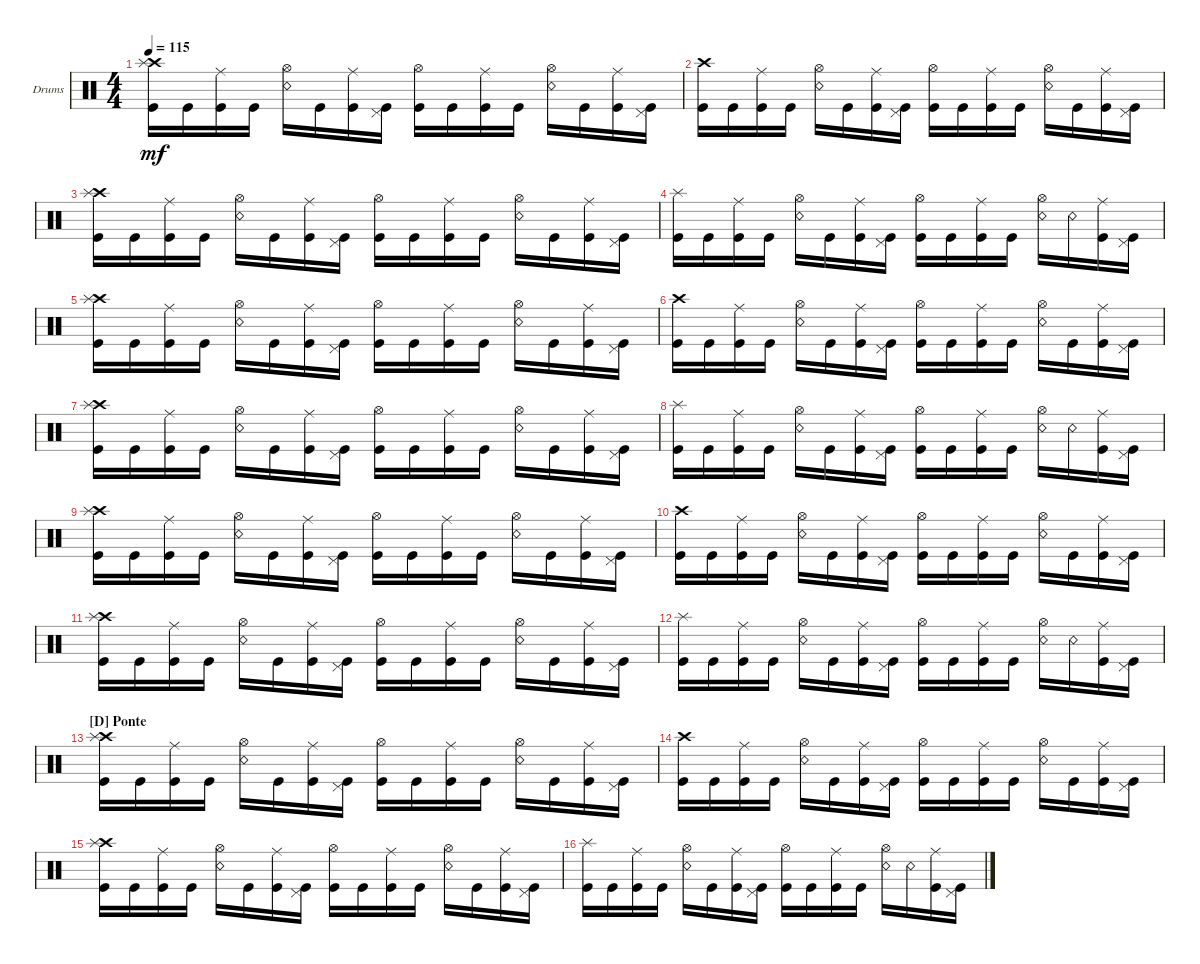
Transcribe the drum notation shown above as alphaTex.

\defaultSystemsLayout 4
\bracketExtendMode groupsimilarinstruments
\firstSystemTrackNameOrientation horizontal
\otherSystemsTrackNameOrientation horizontal
\track ("Drum" "Drums") {multiBarRest instrument percussion}
\staff {score}
\articulation defaults
\ts (4 4)
\tempo 115
\clef neutral
\ks c
("Kick (hit)" "Crash high (hit)" "Splash (hit)").16{dy mf} "Kick (hit)".16 ("Kick (hit)" "Ride (middle)").16 "Kick (hit)".16 ("Snare (rim shot)" "Hi-Hat (open)").16 "Kick (hit)".16 ("Kick (hit)" "Ride (middle)").16 ("Kick (hit)" "Pedal Hi-Hat (hit)").16 ("Kick (hit)" "Hi-Hat (open)").16 "Kick (hit)".16 ("Kick (hit)" "Ride (middle)").16 "Kick (hit)".16 ("Snare (rim shot)" "Hi-Hat (open)").16 "Kick (hit)".16 ("Kick (hit)" "Ride (middle)").16 ("Kick (hit)" "Pedal Hi-Hat (hit)").16 |
("Kick (hit)" "Crash high (hit)").16 "Kick (hit)".16 ("Kick (hit)" "Ride (middle)").16 "Kick (hit)".16 ("Snare (rim shot)" "Hi-Hat (open)").16 "Kick (hit)".16 ("Kick (hit)" "Ride (middle)").16 ("Kick (hit)" "Pedal Hi-Hat (hit)").16 ("Kick (hit)" "Hi-Hat (open)").16 "Kick (hit)".16 ("Kick (hit)" "Ride (middle)").16 "Kick (hit)".16 ("Snare (rim shot)" "Hi-Hat (open)").16 "Kick (hit)".16 ("Kick (hit)" "Ride (middle)").16 ("Kick (hit)" "Pedal Hi-Hat (hit)").16 |
("Kick (hit)" "Crash high (hit)" "Splash (hit)").16 "Kick (hit)".16 ("Kick (hit)" "Ride (middle)").16 "Kick (hit)".16 ("Snare (rim shot)" "Hi-Hat (open)").16 "Kick (hit)".16 ("Kick (hit)" "Ride (middle)").16 ("Kick (hit)" "Pedal Hi-Hat (hit)").16 ("Kick (hit)" "Hi-Hat (open)").16 "Kick (hit)".16 ("Kick (hit)" "Ride (middle)").16 "Kick (hit)".16 ("Snare (rim shot)" "Hi-Hat (open)").16 "Kick (hit)".16 ("Kick (hit)" "Ride (middle)").16 ("Kick (hit)" "Pedal Hi-Hat (hit)").16 |
("Kick (hit)" "Splash (hit)").16 "Kick (hit)".16 ("Kick (hit)" "Ride (middle)").16 "Kick (hit)".16 ("Snare (rim shot)" "Hi-Hat (open)").16 "Kick (hit)".16 ("Kick (hit)" "Ride (middle)").16 ("Kick (hit)" "Pedal Hi-Hat (hit)").16 ("Kick (hit)" "Hi-Hat (open)").16 "Kick (hit)".16 ("Kick (hit)" "Ride (middle)").16 "Kick (hit)".16 ("Snare (rim shot)" "Hi-Hat (open)").16 "Snare (rim shot)".16 ("Kick (hit)" "Ride (middle)").16 ("Kick (hit)" "Pedal Hi-Hat (hit)").16 |
("Kick (hit)" "Crash high (hit)" "Splash (hit)").16 "Kick (hit)".16 ("Kick (hit)" "Ride (middle)").16 "Kick (hit)".16 ("Snare (rim shot)" "Hi-Hat (open)").16 "Kick (hit)".16 ("Kick (hit)" "Ride (middle)").16 ("Kick (hit)" "Pedal Hi-Hat (hit)").16 ("Kick (hit)" "Hi-Hat (open)").16 "Kick (hit)".16 ("Kick (hit)" "Ride (middle)").16 "Kick (hit)".16 ("Snare (rim shot)" "Hi-Hat (open)").16 "Kick (hit)".16 ("Kick (hit)" "Ride (middle)").16 ("Kick (hit)" "Pedal Hi-Hat (hit)").16 |
("Kick (hit)" "Crash high (hit)").16 "Kick (hit)".16 ("Kick (hit)" "Ride (middle)").16 "Kick (hit)".16 ("Snare (rim shot)" "Hi-Hat (open)").16 "Kick (hit)".16 ("Kick (hit)" "Ride (middle)").16 ("Kick (hit)" "Pedal Hi-Hat (hit)").16 ("Kick (hit)" "Hi-Hat (open)").16 "Kick (hit)".16 ("Kick (hit)" "Ride (middle)").16 "Kick (hit)".16 ("Snare (rim shot)" "Hi-Hat (open)").16 "Kick (hit)".16 ("Kick (hit)" "Ride (middle)").16 ("Kick (hit)" "Pedal Hi-Hat (hit)").16 |
("Kick (hit)" "Crash high (hit)" "Splash (hit)").16 "Kick (hit)".16 ("Kick (hit)" "Ride (middle)").16 "Kick (hit)".16 ("Snare (rim shot)" "Hi-Hat (open)").16 "Kick (hit)".16 ("Kick (hit)" "Ride (middle)").16 ("Kick (hit)" "Pedal Hi-Hat (hit)").16 ("Kick (hit)" "Hi-Hat (open)").16 "Kick (hit)".16 ("Kick (hit)" "Ride (middle)").16 "Kick (hit)".16 ("Snare (rim shot)" "Hi-Hat (open)").16 "Kick (hit)".16 ("Kick (hit)" "Ride (middle)").16 ("Kick (hit)" "Pedal Hi-Hat (hit)").16 |
("Kick (hit)" "Splash (hit)").16 "Kick (hit)".16 ("Kick (hit)" "Ride (middle)").16 "Kick (hit)".16 ("Snare (rim shot)" "Hi-Hat (open)").16 "Kick (hit)".16 ("Kick (hit)" "Ride (middle)").16 ("Kick (hit)" "Pedal Hi-Hat (hit)").16 ("Kick (hit)" "Hi-Hat (open)").16 "Kick (hit)".16 ("Kick (hit)" "Ride (middle)").16 "Kick (hit)".16 ("Snare (rim shot)" "Hi-Hat (open)").16 "Snare (rim shot)".16 ("Kick (hit)" "Ride (middle)").16 ("Kick (hit)" "Pedal Hi-Hat (hit)").16 |
("Kick (hit)" "Crash high (hit)" "Splash (hit)").16 "Kick (hit)".16 ("Kick (hit)" "Ride (middle)").16 "Kick (hit)".16 ("Snare (rim shot)" "Hi-Hat (open)").16 "Kick (hit)".16 ("Kick (hit)" "Ride (middle)").16 ("Kick (hit)" "Pedal Hi-Hat (hit)").16 ("Kick (hit)" "Hi-Hat (open)").16 "Kick (hit)".16 ("Kick (hit)" "Ride (middle)").16 "Kick (hit)".16 ("Snare (rim shot)" "Hi-Hat (open)").16 "Kick (hit)".16 ("Kick (hit)" "Ride (middle)").16 ("Kick (hit)" "Pedal Hi-Hat (hit)").16 |
("Kick (hit)" "Crash high (hit)").16 "Kick (hit)".16 ("Kick (hit)" "Ride (middle)").16 "Kick (hit)".16 ("Snare (rim shot)" "Hi-Hat (open)").16 "Kick (hit)".16 ("Kick (hit)" "Ride (middle)").16 ("Kick (hit)" "Pedal Hi-Hat (hit)").16 ("Kick (hit)" "Hi-Hat (open)").16 "Kick (hit)".16 ("Kick (hit)" "Ride (middle)").16 "Kick (hit)".16 ("Snare (rim shot)" "Hi-Hat (open)").16 "Kick (hit)".16 ("Kick (hit)" "Ride (middle)").16 ("Kick (hit)" "Pedal Hi-Hat (hit)").16 |
("Kick (hit)" "Crash high (hit)" "Splash (hit)").16 "Kick (hit)".16 ("Kick (hit)" "Ride (middle)").16 "Kick (hit)".16 ("Snare (rim shot)" "Hi-Hat (open)").16 "Kick (hit)".16 ("Kick (hit)" "Ride (middle)").16 ("Kick (hit)" "Pedal Hi-Hat (hit)").16 ("Kick (hit)" "Hi-Hat (open)").16 "Kick (hit)".16 ("Kick (hit)" "Ride (middle)").16 "Kick (hit)".16 ("Snare (rim shot)" "Hi-Hat (open)").16 "Kick (hit)".16 ("Kick (hit)" "Ride (middle)").16 ("Kick (hit)" "Pedal Hi-Hat (hit)").16 |
("Kick (hit)" "Splash (hit)").16 "Kick (hit)".16 ("Kick (hit)" "Ride (middle)").16 "Kick (hit)".16 ("Snare (rim shot)" "Hi-Hat (open)").16 "Kick (hit)".16 ("Kick (hit)" "Ride (middle)").16 ("Kick (hit)" "Pedal Hi-Hat (hit)").16 ("Kick (hit)" "Hi-Hat (open)").16 "Kick (hit)".16 ("Kick (hit)" "Ride (middle)").16 "Kick (hit)".16 ("Snare (rim shot)" "Hi-Hat (open)").16 "Snare (rim shot)".16 ("Kick (hit)" "Ride (middle)").16 ("Kick (hit)" "Pedal Hi-Hat (hit)").16 |
\section ("D" "Ponte")
("Kick (hit)" "Crash high (hit)" "Splash (hit)").16 "Kick (hit)".16 ("Kick (hit)" "Ride (middle)").16 "Kick (hit)".16 ("Snare (rim shot)" "Hi-Hat (open)").16 "Kick (hit)".16 ("Kick (hit)" "Ride (middle)").16 ("Kick (hit)" "Pedal Hi-Hat (hit)").16 ("Kick (hit)" "Hi-Hat (open)").16 "Kick (hit)".16 ("Kick (hit)" "Ride (middle)").16 "Kick (hit)".16 ("Snare (rim shot)" "Hi-Hat (open)").16 "Kick (hit)".16 ("Kick (hit)" "Ride (middle)").16 ("Kick (hit)" "Pedal Hi-Hat (hit)").16 |
("Kick (hit)" "Crash high (hit)").16 "Kick (hit)".16 ("Kick (hit)" "Ride (middle)").16 "Kick (hit)".16 ("Snare (rim shot)" "Hi-Hat (open)").16 "Kick (hit)".16 ("Kick (hit)" "Ride (middle)").16 ("Kick (hit)" "Pedal Hi-Hat (hit)").16 ("Kick (hit)" "Hi-Hat (open)").16 "Kick (hit)".16 ("Kick (hit)" "Ride (middle)").16 "Kick (hit)".16 ("Snare (rim shot)" "Hi-Hat (open)").16 "Kick (hit)".16 ("Kick (hit)" "Ride (middle)").16 ("Kick (hit)" "Pedal Hi-Hat (hit)").16 |
("Kick (hit)" "Crash high (hit)" "Splash (hit)").16 "Kick (hit)".16 ("Kick (hit)" "Ride (middle)").16 "Kick (hit)".16 ("Snare (rim shot)" "Hi-Hat (open)").16 "Kick (hit)".16 ("Kick (hit)" "Ride (middle)").16 ("Kick (hit)" "Pedal Hi-Hat (hit)").16 ("Kick (hit)" "Hi-Hat (open)").16 "Kick (hit)".16 ("Kick (hit)" "Ride (middle)").16 "Kick (hit)".16 ("Snare (rim shot)" "Hi-Hat (open)").16 "Kick (hit)".16 ("Kick (hit)" "Ride (middle)").16 ("Kick (hit)" "Pedal Hi-Hat (hit)").16 |
("Kick (hit)" "Splash (hit)").16 "Kick (hit)".16 ("Kick (hit)" "Ride (middle)").16 "Kick (hit)".16 ("Snare (rim shot)" "Hi-Hat (open)").16 "Kick (hit)".16 ("Kick (hit)" "Ride (middle)").16 ("Kick (hit)" "Pedal Hi-Hat (hit)").16 ("Kick (hit)" "Hi-Hat (open)").16 "Kick (hit)".16 ("Kick (hit)" "Ride (middle)").16 "Kick (hit)".16 ("Snare (rim shot)" "Hi-Hat (open)").16 "Snare (rim shot)".16 ("Kick (hit)" "Ride (middle)").16 ("Kick (hit)" "Pedal Hi-Hat (hit)").16
